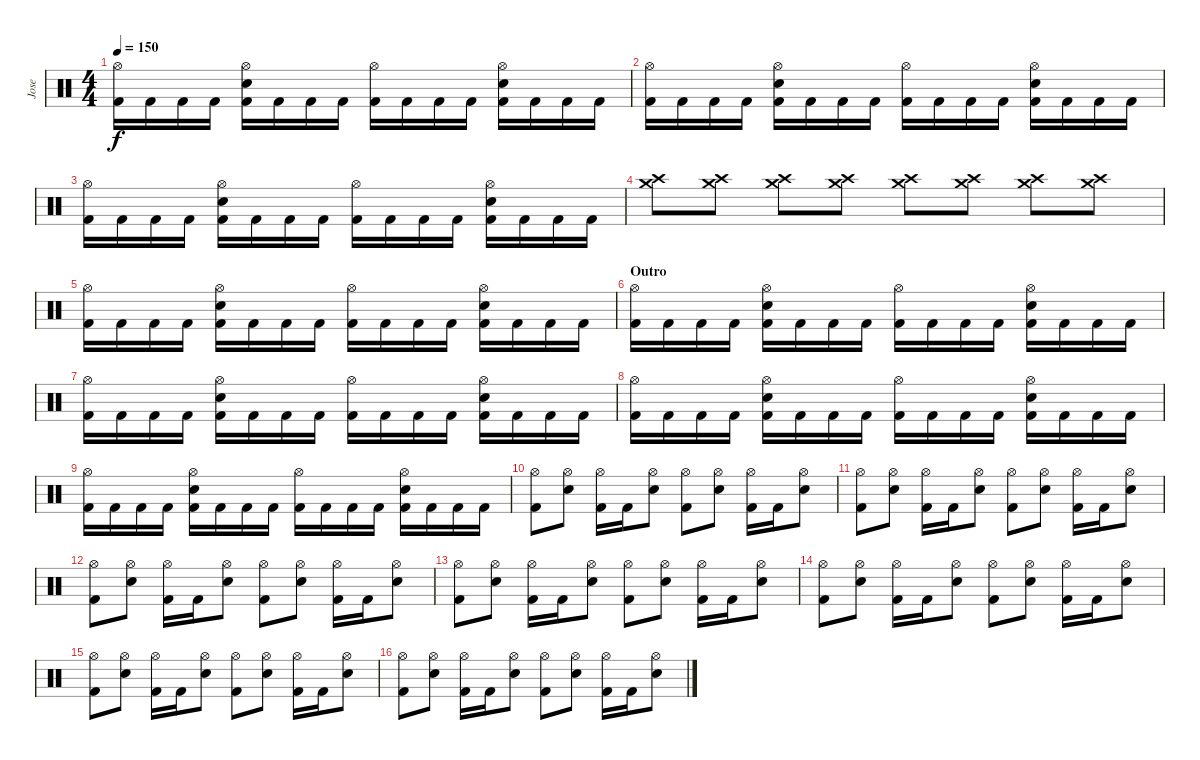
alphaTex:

\track ("Jose" "Jose") {instrument percussion}
\staff {score}
\articulation defaults
\ts (4 4)
\tempo 150
\clef neutral
\ks c
("Hi-Hat (open)" "Kick (hit) 2").16{dy f} "Kick (hit) 2".16 "Kick (hit) 2".16 "Kick (hit) 2".16 ("Kick (hit) 2" "Snare (hit) 2" "Hi-Hat (open)").16 "Kick (hit) 2".16 "Kick (hit) 2".16 "Kick (hit) 2".16 ("Kick (hit) 2" "Hi-Hat (open)").16 "Kick (hit) 2".16 "Kick (hit) 2".16 "Kick (hit) 2".16 ("Kick (hit) 2" "Snare (hit) 2" "Hi-Hat (open)").16 "Kick (hit) 2".16 "Kick (hit) 2".16 "Kick (hit) 2".16 |
("Hi-Hat (open)" "Kick (hit) 2").16 "Kick (hit) 2".16 "Kick (hit) 2".16 "Kick (hit) 2".16 ("Kick (hit) 2" "Snare (hit) 2" "Hi-Hat (open)").16 "Kick (hit) 2".16 "Kick (hit) 2".16 "Kick (hit) 2".16 ("Kick (hit) 2" "Hi-Hat (open)").16 "Kick (hit) 2".16 "Kick (hit) 2".16 "Kick (hit) 2".16 ("Kick (hit) 2" "Snare (hit) 2" "Hi-Hat (open)").16 "Kick (hit) 2".16 "Kick (hit) 2".16 "Kick (hit) 2".16 |
("Hi-Hat (open)" "Kick (hit) 2").16 "Kick (hit) 2".16 "Kick (hit) 2".16 "Kick (hit) 2".16 ("Kick (hit) 2" "Snare (hit) 2" "Hi-Hat (open)").16 "Kick (hit) 2".16 "Kick (hit) 2".16 "Kick (hit) 2".16 ("Kick (hit) 2" "Hi-Hat (open)").16 "Kick (hit) 2".16 "Kick (hit) 2".16 "Kick (hit) 2".16 ("Kick (hit) 2" "Snare (hit) 2" "Hi-Hat (open)").16 "Kick (hit) 2".16 "Kick (hit) 2".16 "Kick (hit) 2".16 |
("Crash high (hit)" "Crash medium (hit)").8 ("Crash high (hit)" "Crash medium (hit)").8 ("Crash high (hit)" "Crash medium (hit)").8 ("Crash high (hit)" "Crash medium (hit)").8 ("Crash high (hit)" "Crash medium (hit)").8 ("Crash high (hit)" "Crash medium (hit)").8 ("Crash high (hit)" "Crash medium (hit)").8 ("Crash high (hit)" "Crash medium (hit)").8 |
("Hi-Hat (open)" "Kick (hit) 2").16 "Kick (hit) 2".16 "Kick (hit) 2".16 "Kick (hit) 2".16 ("Kick (hit) 2" "Snare (hit) 2" "Hi-Hat (open)").16 "Kick (hit) 2".16 "Kick (hit) 2".16 "Kick (hit) 2".16 ("Kick (hit) 2" "Hi-Hat (open)").16 "Kick (hit) 2".16 "Kick (hit) 2".16 "Kick (hit) 2".16 ("Kick (hit) 2" "Snare (hit) 2" "Hi-Hat (open)").16 "Kick (hit) 2".16 "Kick (hit) 2".16 "Kick (hit) 2".16 |
\section ("" "Outro")
("Hi-Hat (open)" "Kick (hit) 2").16 "Kick (hit) 2".16 "Kick (hit) 2".16 "Kick (hit) 2".16 ("Kick (hit) 2" "Snare (hit) 2" "Hi-Hat (open)").16 "Kick (hit) 2".16 "Kick (hit) 2".16 "Kick (hit) 2".16 ("Kick (hit) 2" "Hi-Hat (open)").16 "Kick (hit) 2".16 "Kick (hit) 2".16 "Kick (hit) 2".16 ("Kick (hit) 2" "Snare (hit) 2" "Hi-Hat (open)").16 "Kick (hit) 2".16 "Kick (hit) 2".16 "Kick (hit) 2".16 |
("Hi-Hat (open)" "Kick (hit) 2").16 "Kick (hit) 2".16 "Kick (hit) 2".16 "Kick (hit) 2".16 ("Kick (hit) 2" "Snare (hit) 2" "Hi-Hat (open)").16 "Kick (hit) 2".16 "Kick (hit) 2".16 "Kick (hit) 2".16 ("Kick (hit) 2" "Hi-Hat (open)").16 "Kick (hit) 2".16 "Kick (hit) 2".16 "Kick (hit) 2".16 ("Kick (hit) 2" "Snare (hit) 2" "Hi-Hat (open)").16 "Kick (hit) 2".16 "Kick (hit) 2".16 "Kick (hit) 2".16 |
("Hi-Hat (open)" "Kick (hit) 2").16 "Kick (hit) 2".16 "Kick (hit) 2".16 "Kick (hit) 2".16 ("Kick (hit) 2" "Snare (hit) 2" "Hi-Hat (open)").16 "Kick (hit) 2".16 "Kick (hit) 2".16 "Kick (hit) 2".16 ("Kick (hit) 2" "Hi-Hat (open)").16 "Kick (hit) 2".16 "Kick (hit) 2".16 "Kick (hit) 2".16 ("Kick (hit) 2" "Snare (hit) 2" "Hi-Hat (open)").16 "Kick (hit) 2".16 "Kick (hit) 2".16 "Kick (hit) 2".16 |
("Hi-Hat (open)" "Kick (hit) 2").16 "Kick (hit) 2".16 "Kick (hit) 2".16 "Kick (hit) 2".16 ("Kick (hit) 2" "Snare (hit) 2" "Hi-Hat (open)").16 "Kick (hit) 2".16 "Kick (hit) 2".16 "Kick (hit) 2".16 ("Kick (hit) 2" "Hi-Hat (open)").16 "Kick (hit) 2".16 "Kick (hit) 2".16 "Kick (hit) 2".16 ("Kick (hit) 2" "Snare (hit) 2" "Hi-Hat (open)").16 "Kick (hit) 2".16 "Kick (hit) 2".16 "Kick (hit) 2".16 |
("Hi-Hat (open)" "Kick (hit) 2").8 ("Hi-Hat (open)" "Snare (hit) 2").8 ("Hi-Hat (open)" "Kick (hit) 2").16 "Kick (hit) 2".16 ("Hi-Hat (open)" "Snare (hit) 2").8 ("Hi-Hat (open)" "Kick (hit) 2").8 ("Hi-Hat (open)" "Snare (hit) 2").8 ("Hi-Hat (open)" "Kick (hit) 2").16 "Kick (hit) 2".16 ("Hi-Hat (open)" "Snare (hit) 2").8 |
("Hi-Hat (open)" "Kick (hit) 2").8 ("Hi-Hat (open)" "Snare (hit) 2").8 ("Hi-Hat (open)" "Kick (hit) 2").16 "Kick (hit) 2".16 ("Hi-Hat (open)" "Snare (hit) 2").8 ("Hi-Hat (open)" "Kick (hit) 2").8 ("Hi-Hat (open)" "Snare (hit) 2").8 ("Hi-Hat (open)" "Kick (hit) 2").16 "Kick (hit) 2".16 ("Hi-Hat (open)" "Snare (hit) 2").8 |
("Hi-Hat (open)" "Kick (hit) 2").8 ("Hi-Hat (open)" "Snare (hit) 2").8 ("Hi-Hat (open)" "Kick (hit) 2").16 "Kick (hit) 2".16 ("Hi-Hat (open)" "Snare (hit) 2").8 ("Hi-Hat (open)" "Kick (hit) 2").8 ("Hi-Hat (open)" "Snare (hit) 2").8 ("Hi-Hat (open)" "Kick (hit) 2").16 "Kick (hit) 2".16 ("Hi-Hat (open)" "Snare (hit) 2").8 |
("Hi-Hat (open)" "Kick (hit) 2").8 ("Hi-Hat (open)" "Snare (hit) 2").8 ("Hi-Hat (open)" "Kick (hit) 2").16 "Kick (hit) 2".16 ("Hi-Hat (open)" "Snare (hit) 2").8 ("Hi-Hat (open)" "Kick (hit) 2").8 ("Hi-Hat (open)" "Snare (hit) 2").8 ("Hi-Hat (open)" "Kick (hit) 2").16 "Kick (hit) 2".16 ("Hi-Hat (open)" "Snare (hit) 2").8 |
("Hi-Hat (open)" "Kick (hit) 2").8 ("Hi-Hat (open)" "Snare (hit) 2").8 ("Hi-Hat (open)" "Kick (hit) 2").16 "Kick (hit) 2".16 ("Hi-Hat (open)" "Snare (hit) 2").8 ("Hi-Hat (open)" "Kick (hit) 2").8 ("Hi-Hat (open)" "Snare (hit) 2").8 ("Hi-Hat (open)" "Kick (hit) 2").16 "Kick (hit) 2".16 ("Hi-Hat (open)" "Snare (hit) 2").8 |
("Hi-Hat (open)" "Kick (hit) 2").8 ("Hi-Hat (open)" "Snare (hit) 2").8 ("Hi-Hat (open)" "Kick (hit) 2").16 "Kick (hit) 2".16 ("Hi-Hat (open)" "Snare (hit) 2").8 ("Hi-Hat (open)" "Kick (hit) 2").8 ("Hi-Hat (open)" "Snare (hit) 2").8 ("Hi-Hat (open)" "Kick (hit) 2").16 "Kick (hit) 2".16 ("Hi-Hat (open)" "Snare (hit) 2").8 |
("Hi-Hat (open)" "Kick (hit) 2").8 ("Hi-Hat (open)" "Snare (hit) 2").8 ("Hi-Hat (open)" "Kick (hit) 2").16 "Kick (hit) 2".16 ("Hi-Hat (open)" "Snare (hit) 2").8 ("Hi-Hat (open)" "Kick (hit) 2").8 ("Hi-Hat (open)" "Snare (hit) 2").8 ("Hi-Hat (open)" "Kick (hit) 2").16 "Kick (hit) 2".16 ("Hi-Hat (open)" "Snare (hit) 2").8
